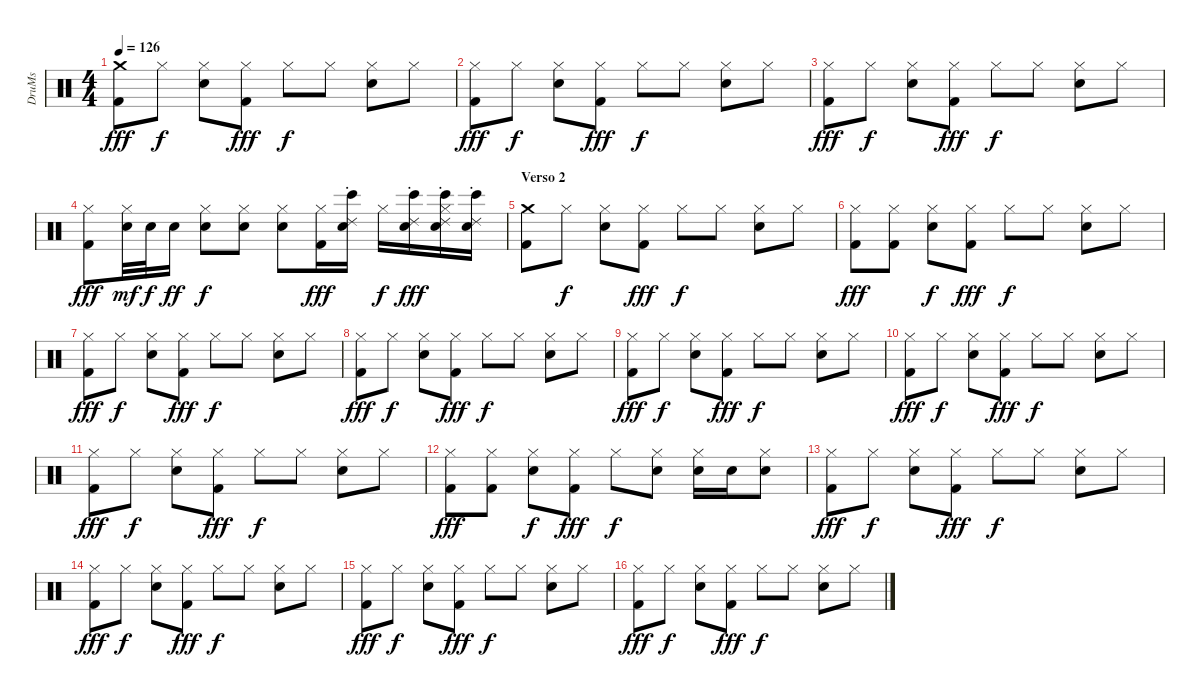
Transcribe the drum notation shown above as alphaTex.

\track ("DruMs" "DruMs") {instrument percussion}
\staff {score}
\articulation defaults
\ts (4 4)
\tempo 126
\clef neutral
\ks c
("Crash medium (hit)" "Kick (hit) 2").8{dy fff} "Hi-Hat (closed)".8{dy f} ("Hi-Hat (closed)" "Snare (hit) 2").8 ("Hi-Hat (closed)" "Kick (hit) 2").8{dy fff} "Hi-Hat (closed)".8{dy f} "Hi-Hat (closed)".8 ("Hi-Hat (closed)" "Snare (hit) 2").8 "Hi-Hat (closed)".8 |
("Hi-Hat (closed)" "Kick (hit) 2").8{dy fff} "Hi-Hat (closed)".8{dy f} ("Hi-Hat (closed)" "Snare (hit) 2").8 ("Hi-Hat (closed)" "Kick (hit) 2").8{dy fff} "Hi-Hat (closed)".8{dy f} "Hi-Hat (closed)".8 ("Hi-Hat (closed)" "Snare (hit) 2").8 "Hi-Hat (closed)".8 |
("Hi-Hat (closed)" "Kick (hit) 2").8{dy fff} "Hi-Hat (closed)".8{dy f} ("Hi-Hat (closed)" "Snare (hit) 2").8 ("Hi-Hat (closed)" "Kick (hit) 2").8{dy fff} "Hi-Hat (closed)".8{dy f} "Hi-Hat (closed)".8 ("Hi-Hat (closed)" "Snare (hit) 2").8 "Hi-Hat (closed)".8 |
("Hi-Hat (closed)" "Kick (hit) 2").8{dy fff} ("Hi-Hat (closed)" "Snare (hit) 2").32{dy mf} "Snare (hit) 2".32{dy f} "Snare (hit) 2".16{dy ff} ("Hi-Hat (closed)" "Snare (hit) 2").8{dy f} ("Hi-Hat (closed)" "Snare (hit) 2").8 ("Hi-Hat (closed)" "Snare (hit) 2").8 ("Hi-Hat (closed)" "Kick (hit) 2").16{dy fff} ("Snare (hit) 2" "Bongo High (hit)" "Ride (choke) 2").16 "Hi-Hat (closed)".16{dy f} ("Snare (hit) 2" "Bongo High (hit)" "Ride (choke) 2").16{dy fff} ("Hi-Hat (closed)" "Snare (hit) 2" "Bongo High (hit)" "Ride (choke) 2").16 ("Snare (hit) 2" "Bongo High (hit)" "Ride (choke) 2").16 |
\section ("" "Verso 2")
("Crash medium (hit)" "Kick (hit) 2").8 "Hi-Hat (closed)".8{dy f} ("Hi-Hat (closed)" "Snare (hit) 2").8 ("Hi-Hat (closed)" "Kick (hit) 2").8{dy fff} "Hi-Hat (closed)".8{dy f} "Hi-Hat (closed)".8 ("Hi-Hat (closed)" "Snare (hit) 2").8 "Hi-Hat (closed)".8 |
("Hi-Hat (closed)" "Kick (hit) 2").8{dy fff} ("Hi-Hat (closed)" "Kick (hit) 2").8 ("Hi-Hat (closed)" "Snare (hit) 2").8{dy f} ("Hi-Hat (closed)" "Kick (hit) 2").8{dy fff} "Hi-Hat (closed)".8{dy f} "Hi-Hat (closed)".8 ("Hi-Hat (closed)" "Snare (hit) 2").8 "Hi-Hat (closed)".8 |
("Hi-Hat (closed)" "Kick (hit) 2").8{dy fff} "Hi-Hat (closed)".8{dy f} ("Hi-Hat (closed)" "Snare (hit) 2").8 ("Hi-Hat (closed)" "Kick (hit) 2").8{dy fff} "Hi-Hat (closed)".8{dy f} "Hi-Hat (closed)".8 ("Hi-Hat (closed)" "Snare (hit) 2").8 "Hi-Hat (closed)".8 |
("Hi-Hat (closed)" "Kick (hit) 2").8{dy fff} "Hi-Hat (closed)".8{dy f} ("Hi-Hat (closed)" "Snare (hit) 2").8 ("Hi-Hat (closed)" "Kick (hit) 2").8{dy fff} "Hi-Hat (closed)".8{dy f} "Hi-Hat (closed)".8 ("Hi-Hat (closed)" "Snare (hit) 2").8 "Hi-Hat (closed)".8 |
("Hi-Hat (closed)" "Kick (hit) 2").8{dy fff} "Hi-Hat (closed)".8{dy f} ("Hi-Hat (closed)" "Snare (hit) 2").8 ("Hi-Hat (closed)" "Kick (hit) 2").8{dy fff} "Hi-Hat (closed)".8{dy f} "Hi-Hat (closed)".8 ("Hi-Hat (closed)" "Snare (hit) 2").8 "Hi-Hat (closed)".8 |
("Hi-Hat (closed)" "Kick (hit) 2").8{dy fff} "Hi-Hat (closed)".8{dy f} ("Hi-Hat (closed)" "Snare (hit) 2").8 ("Hi-Hat (closed)" "Kick (hit) 2").8{dy fff} "Hi-Hat (closed)".8{dy f} "Hi-Hat (closed)".8 ("Hi-Hat (closed)" "Snare (hit) 2").8 "Hi-Hat (closed)".8 |
("Hi-Hat (closed)" "Kick (hit) 2").8{dy fff} "Hi-Hat (closed)".8{dy f} ("Hi-Hat (closed)" "Snare (hit) 2").8 ("Hi-Hat (closed)" "Kick (hit) 2").8{dy fff} "Hi-Hat (closed)".8{dy f} "Hi-Hat (closed)".8 ("Hi-Hat (closed)" "Snare (hit) 2").8 "Hi-Hat (closed)".8 |
("Hi-Hat (closed)" "Kick (hit) 2").8{dy fff} ("Hi-Hat (closed)" "Kick (hit) 2").8 ("Hi-Hat (closed)" "Snare (hit) 2").8{dy f} ("Hi-Hat (closed)" "Kick (hit) 2").8{dy fff} "Hi-Hat (closed)".8{dy f} ("Hi-Hat (closed)" "Snare (hit) 2").8 ("Hi-Hat (closed)" "Snare (hit) 2").16 "Snare (hit) 2".16 ("Hi-Hat (closed)" "Snare (hit) 2").8 |
("Hi-Hat (closed)" "Kick (hit) 2").8{dy fff} "Hi-Hat (closed)".8{dy f} ("Hi-Hat (closed)" "Snare (hit) 2").8 ("Hi-Hat (closed)" "Kick (hit) 2").8{dy fff} "Hi-Hat (closed)".8{dy f} "Hi-Hat (closed)".8 ("Hi-Hat (closed)" "Snare (hit) 2").8 "Hi-Hat (closed)".8 |
("Hi-Hat (closed)" "Kick (hit) 2").8{dy fff} "Hi-Hat (closed)".8{dy f} ("Hi-Hat (closed)" "Snare (hit) 2").8 ("Hi-Hat (closed)" "Kick (hit) 2").8{dy fff} "Hi-Hat (closed)".8{dy f} "Hi-Hat (closed)".8 ("Hi-Hat (closed)" "Snare (hit) 2").8 "Hi-Hat (closed)".8 |
("Hi-Hat (closed)" "Kick (hit) 2").8{dy fff} "Hi-Hat (closed)".8{dy f} ("Hi-Hat (closed)" "Snare (hit) 2").8 ("Hi-Hat (closed)" "Kick (hit) 2").8{dy fff} "Hi-Hat (closed)".8{dy f} "Hi-Hat (closed)".8 ("Hi-Hat (closed)" "Snare (hit) 2").8 "Hi-Hat (closed)".8 |
("Hi-Hat (closed)" "Kick (hit) 2").8{dy fff} "Hi-Hat (closed)".8{dy f} ("Hi-Hat (closed)" "Snare (hit) 2").8 ("Hi-Hat (closed)" "Kick (hit) 2").8{dy fff} "Hi-Hat (closed)".8{dy f} "Hi-Hat (closed)".8 ("Hi-Hat (closed)" "Snare (hit) 2").8 "Hi-Hat (closed)".8
